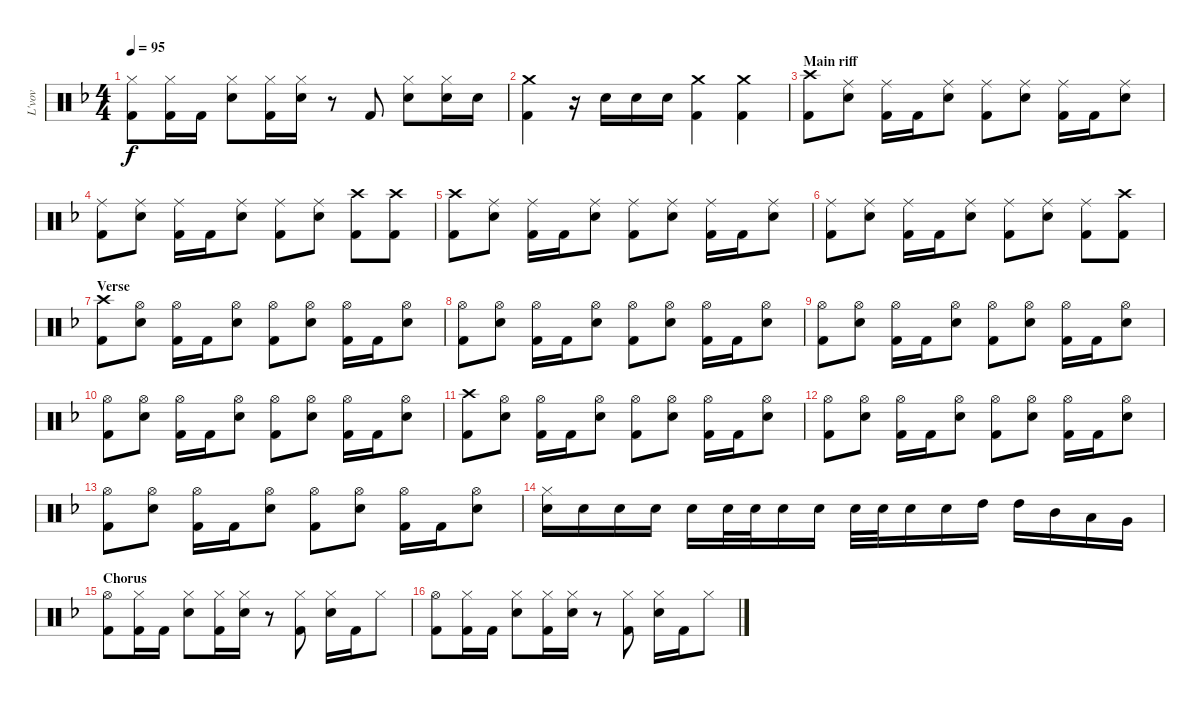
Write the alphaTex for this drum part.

\track ("L'vov" "L'vov") {instrument percussion}
\staff {score}
\articulation defaults
\ts (4 4)
\tempo 95
\clef neutral
\ks f
("Kick (hit) 2" "Hi-Hat (closed)").8{dy f} ("Kick (hit) 2" "Hi-Hat (closed)").16 "Kick (hit) 2".16 ("Snare (hit) 2" "Hi-Hat (closed)").8 ("Kick (hit) 2" "Hi-Hat (closed)").16 ("Snare (hit) 2" "Hi-Hat (closed)").16 r.8 "Kick (hit) 2".8 ("Snare (hit) 2" "Hi-Hat (closed)").8 ("Snare (hit) 2" "Hi-Hat (closed)").16 "Snare (hit) 2".16 |
("Kick (hit) 2" "Crash medium (hit)").4 r.16 "Snare (hit) 2".16 "Snare (hit) 2".16 "Snare (hit) 2".16 ("Kick (hit) 2" "Crash medium (hit)").4 ("Kick (hit) 2" "Crash medium (hit)").4 |
\section ("" "Main riff")
("Kick (hit) 2" "Crash high (hit)").8 ("Snare (hit) 2" "Ride (middle)").8 ("Kick (hit) 2" "Ride (middle)").16 "Kick (hit) 2".16 ("Snare (hit) 2" "Ride (middle)").8 ("Kick (hit) 2" "Ride (middle)").8 ("Snare (hit) 2" "Ride (middle)").8 ("Kick (hit) 2" "Ride (middle)").16 "Kick (hit) 2".16 ("Snare (hit) 2" "Ride (middle)").8 |
("Kick (hit) 2" "Ride (middle)").8 ("Snare (hit) 2" "Ride (middle)").8 ("Kick (hit) 2" "Ride (middle)").16 "Kick (hit) 2".16 ("Snare (hit) 2" "Ride (middle)").8 ("Kick (hit) 2" "Ride (middle)").8 ("Snare (hit) 2" "Ride (middle)").8 ("Kick (hit) 2" "Crash high (hit)").8 ("Kick (hit) 2" "Crash high (hit)").8 |
("Kick (hit) 2" "Crash high (hit)").8 ("Snare (hit) 2" "Ride (middle)").8 ("Kick (hit) 2" "Ride (middle)").16 "Kick (hit) 2".16 ("Snare (hit) 2" "Ride (middle)").8 ("Kick (hit) 2" "Ride (middle)").8 ("Snare (hit) 2" "Ride (middle)").8 ("Kick (hit) 2" "Ride (middle)").16 "Kick (hit) 2".16 ("Snare (hit) 2" "Ride (middle)").8 |
("Kick (hit) 2" "Ride (middle)").8 ("Snare (hit) 2" "Ride (middle)").8 ("Kick (hit) 2" "Ride (middle)").16 "Kick (hit) 2".16 ("Snare (hit) 2" "Ride (middle)").8 ("Kick (hit) 2" "Ride (middle)").8 ("Snare (hit) 2" "Ride (middle)").8 ("Kick (hit) 2" "Ride (middle)").8 ("Kick (hit) 2" "Crash high (hit)").8 |
\section ("" "Verse")
("Kick (hit) 2" "Crash high (hit)").8 ("Snare (hit) 2" "Hi-Hat (open)").8 ("Kick (hit) 2" "Hi-Hat (open)").16 "Kick (hit) 2".16 ("Snare (hit) 2" "Hi-Hat (open)").8 ("Kick (hit) 2" "Hi-Hat (open)").8 ("Snare (hit) 2" "Hi-Hat (open)").8 ("Kick (hit) 2" "Hi-Hat (open)").16 "Kick (hit) 2".16 ("Snare (hit) 2" "Hi-Hat (open)").8 |
("Kick (hit) 2" "Hi-Hat (open)").8 ("Snare (hit) 2" "Hi-Hat (open)").8 ("Kick (hit) 2" "Hi-Hat (open)").16 "Kick (hit) 2".16 ("Snare (hit) 2" "Hi-Hat (open)").8 ("Kick (hit) 2" "Hi-Hat (open)").8 ("Snare (hit) 2" "Hi-Hat (open)").8 ("Kick (hit) 2" "Hi-Hat (open)").16 "Kick (hit) 2".16 ("Snare (hit) 2" "Hi-Hat (open)").8 |
("Kick (hit) 2" "Hi-Hat (open)").8 ("Snare (hit) 2" "Hi-Hat (open)").8 ("Kick (hit) 2" "Hi-Hat (open)").16 "Kick (hit) 2".16 ("Snare (hit) 2" "Hi-Hat (open)").8 ("Kick (hit) 2" "Hi-Hat (open)").8 ("Snare (hit) 2" "Hi-Hat (open)").8 ("Kick (hit) 2" "Hi-Hat (open)").16 "Kick (hit) 2".16 ("Snare (hit) 2" "Hi-Hat (open)").8 |
("Kick (hit) 2" "Hi-Hat (open)").8 ("Snare (hit) 2" "Hi-Hat (open)").8 ("Kick (hit) 2" "Hi-Hat (open)").16 "Kick (hit) 2".16 ("Snare (hit) 2" "Hi-Hat (open)").8 ("Kick (hit) 2" "Hi-Hat (open)").8 ("Snare (hit) 2" "Hi-Hat (open)").8 ("Kick (hit) 2" "Hi-Hat (open)").16 "Kick (hit) 2".16 ("Snare (hit) 2" "Hi-Hat (open)").8 |
("Kick (hit) 2" "Crash high (hit)").8 ("Snare (hit) 2" "Hi-Hat (open)").8 ("Kick (hit) 2" "Hi-Hat (open)").16 "Kick (hit) 2".16 ("Snare (hit) 2" "Hi-Hat (open)").8 ("Kick (hit) 2" "Hi-Hat (open)").8 ("Snare (hit) 2" "Hi-Hat (open)").8 ("Kick (hit) 2" "Hi-Hat (open)").16 "Kick (hit) 2".16 ("Snare (hit) 2" "Hi-Hat (open)").8 |
("Kick (hit) 2" "Hi-Hat (open)").8 ("Snare (hit) 2" "Hi-Hat (open)").8 ("Kick (hit) 2" "Hi-Hat (open)").16 "Kick (hit) 2".16 ("Snare (hit) 2" "Hi-Hat (open)").8 ("Kick (hit) 2" "Hi-Hat (open)").8 ("Snare (hit) 2" "Hi-Hat (open)").8 ("Kick (hit) 2" "Hi-Hat (open)").16 "Kick (hit) 2".16 ("Snare (hit) 2" "Hi-Hat (open)").8 |
("Kick (hit) 2" "Hi-Hat (open)").8 ("Snare (hit) 2" "Hi-Hat (open)").8 ("Kick (hit) 2" "Hi-Hat (open)").16 "Kick (hit) 2".16 ("Snare (hit) 2" "Hi-Hat (open)").8 ("Kick (hit) 2" "Hi-Hat (open)").8 ("Snare (hit) 2" "Hi-Hat (open)").8 ("Kick (hit) 2" "Hi-Hat (open)").16 "Kick (hit) 2".16 ("Snare (hit) 2" "Hi-Hat (open)").8 |
("Snare (hit) 2" "Hi-Hat (closed)").16 "Snare (hit) 2".16 "Snare (hit) 2".16 "Snare (hit) 2".16 "Snare (hit) 2".16 "Electric Snare (hit)".32 "Snare (hit) 2".32 "Snare (hit) 2".16 "Snare (hit) 2".16 "Snare (hit) 2".32 "Snare (hit) 2".32 "Snare (hit) 2".16 "Snare (hit) 2".16 "High Tom (hit)".16 "High Tom (hit)".16 "Mid Tom (hit)".16 "Low Tom (hit)".16 "Very Low Tom (hit)".16 |
\section ("" "Chorus")
("Kick (hit) 2" "Hi-Hat (open)").8 ("Kick (hit) 2" "Hi-Hat (closed)").16 "Kick (hit) 2".16 ("Snare (hit) 2" "Hi-Hat (closed)").8 ("Kick (hit) 2" "Hi-Hat (closed)").16 ("Snare (hit) 2" "Hi-Hat (closed)").16 r.8 ("Kick (hit) 2" "Hi-Hat (closed)").8 ("Snare (hit) 2" "Hi-Hat (closed)").16 "Kick (hit) 2".16 "Hi-Hat (closed)".8 |
("Kick (hit) 2" "Hi-Hat (open)").8 ("Kick (hit) 2" "Hi-Hat (closed)").16 "Kick (hit) 2".16 ("Snare (hit) 2" "Hi-Hat (closed)").8 ("Kick (hit) 2" "Hi-Hat (closed)").16 ("Snare (hit) 2" "Hi-Hat (closed)").16 r.8 ("Kick (hit) 2" "Hi-Hat (closed)").8 ("Snare (hit) 2" "Hi-Hat (closed)").16 "Kick (hit) 2".16 "Hi-Hat (closed)".8
